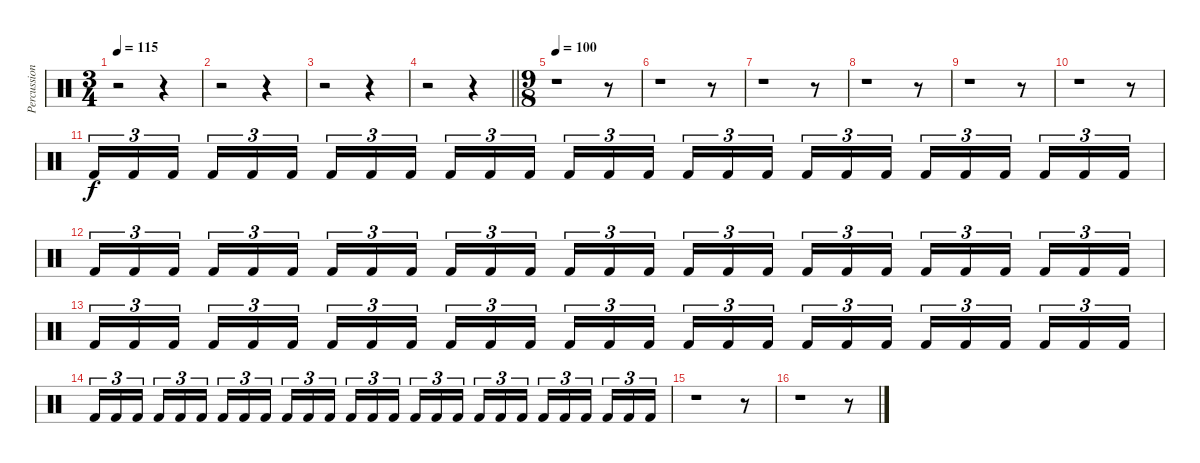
\track ("Percussion" "Percussion") {instrument percussion}
\staff {score}
\articulation defaults
\ts (3 4)
\tempo 115
\clef neutral
\ks c
r.2{dy f} r.4 |
r.2 r.4 |
r.2 r.4 |
\barLineRight lightlight
r.2 r.4 |
\ts (9 8)
\tempo 100
r.1 r.8 |
r.1 r.8 |
r.1 r.8 |
r.1 r.8 |
r.1 r.8 |
r.1 r.8 |
"Kick (hit) 2".16{tu (3 2)} "Kick (hit) 2".16{tu (3 2)} "Kick (hit) 2".16{tu (3 2)} "Kick (hit) 2".16{tu (3 2)} "Kick (hit) 2".16{tu (3 2)} "Kick (hit) 2".16{tu (3 2)} "Kick (hit) 2".16{tu (3 2)} "Kick (hit) 2".16{tu (3 2)} "Kick (hit) 2".16{tu (3 2)} "Kick (hit) 2".16{tu (3 2)} "Kick (hit) 2".16{tu (3 2)} "Kick (hit) 2".16{tu (3 2)} "Kick (hit) 2".16{tu (3 2)} "Kick (hit) 2".16{tu (3 2)} "Kick (hit) 2".16{tu (3 2)} "Kick (hit) 2".16{tu (3 2)} "Kick (hit) 2".16{tu (3 2)} "Kick (hit) 2".16{tu (3 2)} "Kick (hit) 2".16{tu (3 2)} "Kick (hit) 2".16{tu (3 2)} "Kick (hit) 2".16{tu (3 2)} "Kick (hit) 2".16{tu (3 2)} "Kick (hit) 2".16{tu (3 2)} "Kick (hit) 2".16{tu (3 2)} "Kick (hit) 2".16{tu (3 2)} "Kick (hit) 2".16{tu (3 2)} "Kick (hit) 2".16{tu (3 2)} |
"Kick (hit) 2".16{tu (3 2)} "Kick (hit) 2".16{tu (3 2)} "Kick (hit) 2".16{tu (3 2)} "Kick (hit) 2".16{tu (3 2)} "Kick (hit) 2".16{tu (3 2)} "Kick (hit) 2".16{tu (3 2)} "Kick (hit) 2".16{tu (3 2)} "Kick (hit) 2".16{tu (3 2)} "Kick (hit) 2".16{tu (3 2)} "Kick (hit) 2".16{tu (3 2)} "Kick (hit) 2".16{tu (3 2)} "Kick (hit) 2".16{tu (3 2)} "Kick (hit) 2".16{tu (3 2)} "Kick (hit) 2".16{tu (3 2)} "Kick (hit) 2".16{tu (3 2)} "Kick (hit) 2".16{tu (3 2)} "Kick (hit) 2".16{tu (3 2)} "Kick (hit) 2".16{tu (3 2)} "Kick (hit) 2".16{tu (3 2)} "Kick (hit) 2".16{tu (3 2)} "Kick (hit) 2".16{tu (3 2)} "Kick (hit) 2".16{tu (3 2)} "Kick (hit) 2".16{tu (3 2)} "Kick (hit) 2".16{tu (3 2)} "Kick (hit) 2".16{tu (3 2)} "Kick (hit) 2".16{tu (3 2)} "Kick (hit) 2".16{tu (3 2)} |
"Kick (hit) 2".16{tu (3 2)} "Kick (hit) 2".16{tu (3 2)} "Kick (hit) 2".16{tu (3 2)} "Kick (hit) 2".16{tu (3 2)} "Kick (hit) 2".16{tu (3 2)} "Kick (hit) 2".16{tu (3 2)} "Kick (hit) 2".16{tu (3 2)} "Kick (hit) 2".16{tu (3 2)} "Kick (hit) 2".16{tu (3 2)} "Kick (hit) 2".16{tu (3 2)} "Kick (hit) 2".16{tu (3 2)} "Kick (hit) 2".16{tu (3 2)} "Kick (hit) 2".16{tu (3 2)} "Kick (hit) 2".16{tu (3 2)} "Kick (hit) 2".16{tu (3 2)} "Kick (hit) 2".16{tu (3 2)} "Kick (hit) 2".16{tu (3 2)} "Kick (hit) 2".16{tu (3 2)} "Kick (hit) 2".16{tu (3 2)} "Kick (hit) 2".16{tu (3 2)} "Kick (hit) 2".16{tu (3 2)} "Kick (hit) 2".16{tu (3 2)} "Kick (hit) 2".16{tu (3 2)} "Kick (hit) 2".16{tu (3 2)} "Kick (hit) 2".16{tu (3 2)} "Kick (hit) 2".16{tu (3 2)} "Kick (hit) 2".16{tu (3 2)} |
"Kick (hit) 2".16{tu (3 2)} "Kick (hit) 2".16{tu (3 2)} "Kick (hit) 2".16{tu (3 2)} "Kick (hit) 2".16{tu (3 2)} "Kick (hit) 2".16{tu (3 2)} "Kick (hit) 2".16{tu (3 2)} "Kick (hit) 2".16{tu (3 2)} "Kick (hit) 2".16{tu (3 2)} "Kick (hit) 2".16{tu (3 2)} "Kick (hit) 2".16{tu (3 2)} "Kick (hit) 2".16{tu (3 2)} "Kick (hit) 2".16{tu (3 2)} "Kick (hit) 2".16{tu (3 2)} "Kick (hit) 2".16{tu (3 2)} "Kick (hit) 2".16{tu (3 2)} "Kick (hit) 2".16{tu (3 2)} "Kick (hit) 2".16{tu (3 2)} "Kick (hit) 2".16{tu (3 2)} "Kick (hit) 2".16{tu (3 2)} "Kick (hit) 2".16{tu (3 2)} "Kick (hit) 2".16{tu (3 2)} "Kick (hit) 2".16{tu (3 2)} "Kick (hit) 2".16{tu (3 2)} "Kick (hit) 2".16{tu (3 2)} "Kick (hit) 2".16{tu (3 2)} "Kick (hit) 2".16{tu (3 2)} "Kick (hit) 2".16{tu (3 2)} |
r.1 r.8 |
r.1 r.8
